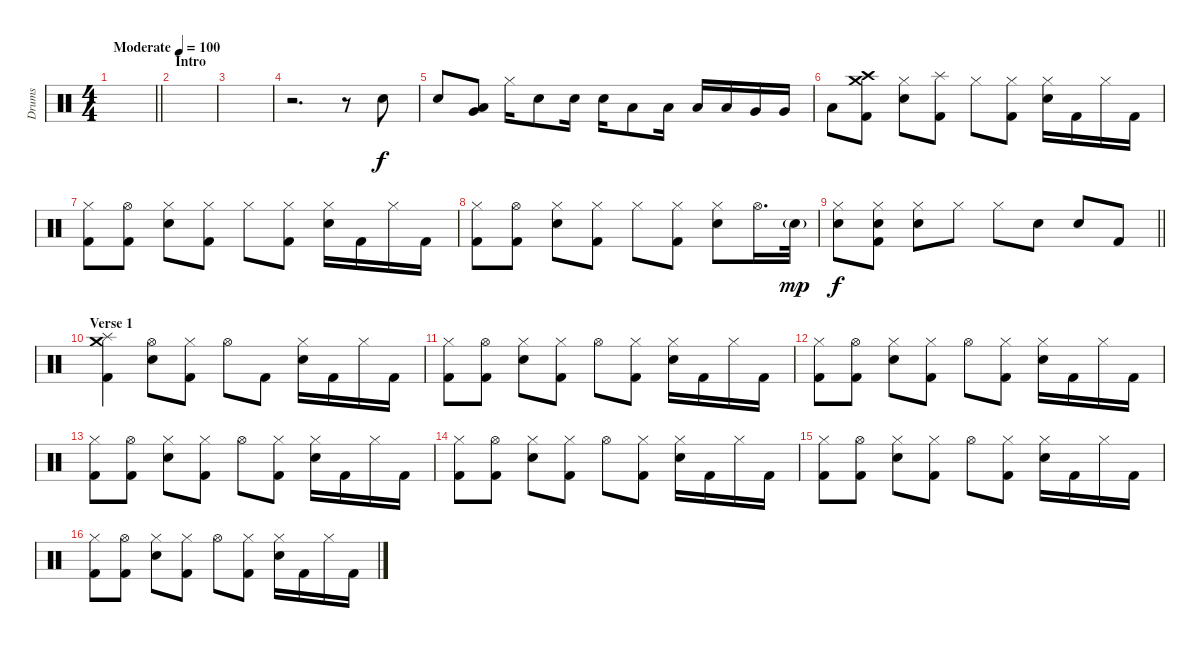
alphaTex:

\track ("Drums" "Drums") {instrument percussion}
\staff {score}
\articulation defaults
\ts (4 4)
\tempo (100 "Moderate")
\clef neutral
\barLineRight lightlight
\ks c
|
\section ("" "Intro")
|
|
r.2{d} r.8 "Snare (hit) 2".8 |
"Snare (hit) 2".8 ("Very Low Tom (hit)" "Low Tom (hit)").8 "Hi-Hat (closed)".16 "Snare (hit) 2".8 "Snare (hit) 2".16 "Snare (hit) 2".16 "Low Tom (hit)".8 "Low Tom (hit)".16 "Low Tom (hit)".16 "Low Tom (hit)".16 "Very Low Tom (hit)".16 "Very Low Tom (hit)".16 |
"Low Floor Tom (hit)".8 ("Crash high (hit)" "Kick (hit) 2" "Crash medium (hit)").8 ("Snare (hit) 2" "Hi-Hat (closed)").8 ("Kick (hit) 2" "Splash (hit)").8 "Hi-Hat (closed)".8 ("Kick (hit) 2" "Hi-Hat (closed)").8 ("Snare (hit) 2" "Hi-Hat (closed)").16 "Kick (hit) 2".16 "Hi-Hat (closed)".16 "Kick (hit) 2".16 |
("Kick (hit) 2" "Hi-Hat (closed)").8 ("Kick (hit) 2" "Hi-Hat (open)").8 ("Snare (hit) 2" "Hi-Hat (closed)").8 ("Kick (hit) 2" "Hi-Hat (closed)").8 "Hi-Hat (closed)".8 ("Kick (hit) 2" "Hi-Hat (closed)").8 ("Snare (hit) 2" "Hi-Hat (closed)").16 "Kick (hit) 2".16 "Hi-Hat (closed)".16 "Kick (hit) 2".16 |
("Kick (hit) 2" "Hi-Hat (closed)").8 ("Kick (hit) 2" "Hi-Hat (open)").8 ("Snare (hit) 2" "Hi-Hat (closed)").8 ("Kick (hit) 2" "Hi-Hat (closed)").8 "Hi-Hat (closed)".8 ("Kick (hit) 2" "Hi-Hat (closed)").8 ("Snare (hit) 2" "Hi-Hat (closed)").8 "Hi-Hat (open)".16{d} "Snare (hit) 2"{g}.32{dy mp} |
\barLineRight lightlight
("Snare (hit) 2" "Hi-Hat (closed)").8{dy f} ("Hi-Hat (closed)" "Snare (hit) 2" "Kick (hit) 2").8 ("Hi-Hat (closed)" "Snare (hit) 2").8 "Hi-Hat (closed)".8 "Hi-Hat (closed)".8 "Snare (hit) 2".8 "Snare (hit) 2".8 "Kick (hit) 2".8 |
\section ("" "Verse 1")
("Kick (hit) 2" "Crash medium (hit)" "Splash (hit)").4 ("Snare (hit) 2" "Hi-Hat (open)").8 ("Kick (hit) 2" "Hi-Hat (closed)").8 "Hi-Hat (open)".8 "Kick (hit) 2".8 ("Snare (hit) 2" "Hi-Hat (closed)").16 "Kick (hit) 2".16 "Hi-Hat (closed)".16 "Kick (hit) 2".16 |
("Kick (hit) 2" "Hi-Hat (closed)").8 ("Kick (hit) 2" "Hi-Hat (open)").8 ("Snare (hit) 2" "Hi-Hat (closed)").8 ("Kick (hit) 2" "Hi-Hat (closed)").8 "Hi-Hat (open)".8 ("Kick (hit) 2" "Hi-Hat (closed)").8 ("Snare (hit) 2" "Hi-Hat (closed)").16 "Kick (hit) 2".16 "Hi-Hat (closed)".16 "Kick (hit) 2".16 |
("Kick (hit) 2" "Hi-Hat (closed)").8 ("Kick (hit) 2" "Hi-Hat (open)").8 ("Snare (hit) 2" "Hi-Hat (closed)").8 ("Kick (hit) 2" "Hi-Hat (closed)").8 "Hi-Hat (open)".8 ("Kick (hit) 2" "Hi-Hat (closed)").8 ("Snare (hit) 2" "Hi-Hat (closed)").16 "Kick (hit) 2".16 "Hi-Hat (closed)".16 "Kick (hit) 2".16 |
("Kick (hit) 2" "Hi-Hat (closed)").8 ("Kick (hit) 2" "Hi-Hat (open)").8 ("Snare (hit) 2" "Hi-Hat (closed)").8 ("Kick (hit) 2" "Hi-Hat (closed)").8 "Hi-Hat (open)".8 ("Kick (hit) 2" "Hi-Hat (closed)").8 ("Snare (hit) 2" "Hi-Hat (closed)").16 "Kick (hit) 2".16 "Hi-Hat (closed)".16 "Kick (hit) 2".16 |
("Kick (hit) 2" "Hi-Hat (closed)").8 ("Kick (hit) 2" "Hi-Hat (open)").8 ("Snare (hit) 2" "Hi-Hat (closed)").8 ("Kick (hit) 2" "Hi-Hat (closed)").8 "Hi-Hat (open)".8 ("Kick (hit) 2" "Hi-Hat (closed)").8 ("Snare (hit) 2" "Hi-Hat (closed)").16 "Kick (hit) 2".16 "Hi-Hat (closed)".16 "Kick (hit) 2".16 |
("Kick (hit) 2" "Hi-Hat (closed)").8 ("Kick (hit) 2" "Hi-Hat (open)").8 ("Snare (hit) 2" "Hi-Hat (closed)").8 ("Kick (hit) 2" "Hi-Hat (closed)").8 "Hi-Hat (open)".8 ("Kick (hit) 2" "Hi-Hat (closed)").8 ("Snare (hit) 2" "Hi-Hat (closed)").16 "Kick (hit) 2".16 "Hi-Hat (closed)".16 "Kick (hit) 2".16 |
("Kick (hit) 2" "Hi-Hat (closed)").8 ("Kick (hit) 2" "Hi-Hat (open)").8 ("Snare (hit) 2" "Hi-Hat (closed)").8 ("Kick (hit) 2" "Hi-Hat (closed)").8 "Hi-Hat (open)".8 ("Kick (hit) 2" "Hi-Hat (closed)").8 ("Snare (hit) 2" "Hi-Hat (closed)").16 "Kick (hit) 2".16 "Hi-Hat (closed)".16 "Kick (hit) 2".16
